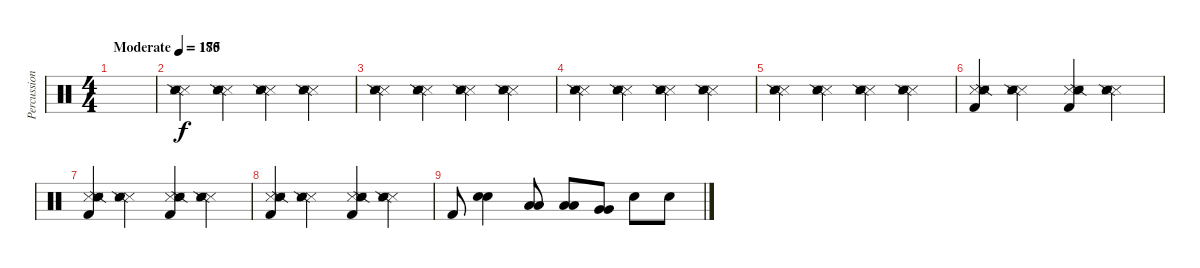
\track ("Percussion" "Percussion") {instrument percussion}
\staff {score}
\articulation defaults
\ts (4 4)
\tempo (175 "Moderate")
\clef neutral
\ks c
|
\tempo 180
("Snare (side stick) 3" "Snare (side stick) 3" "Snare (side stick) 2").4 ("Snare (side stick) 3" "Snare (side stick) 3" "Snare (side stick) 2").4 ("Snare (side stick) 3" "Snare (side stick) 3" "Snare (side stick) 2").4 ("Snare (side stick) 3" "Snare (side stick) 3" "Snare (side stick) 2").4 |
("Snare (side stick) 3" "Snare (side stick) 3" "Snare (side stick) 2").4 ("Snare (side stick) 3" "Snare (side stick) 3" "Snare (side stick) 2").4 ("Snare (side stick) 3" "Snare (side stick) 3" "Snare (side stick) 2").4 ("Snare (side stick) 3" "Snare (side stick) 3" "Snare (side stick) 2").4 |
("Snare (side stick) 3" "Snare (side stick) 3" "Snare (side stick) 2").4 ("Snare (side stick) 3" "Snare (side stick) 3" "Snare (side stick) 2").4 ("Snare (side stick) 3" "Snare (side stick) 3" "Snare (side stick) 2").4 ("Snare (side stick) 3" "Snare (side stick) 3" "Snare (side stick) 2").4 |
("Snare (side stick) 3" "Snare (side stick) 3" "Snare (side stick) 2").4 ("Snare (side stick) 3" "Snare (side stick) 3" "Snare (side stick) 2").4 ("Snare (side stick) 3" "Snare (side stick) 3" "Snare (side stick) 2").4 ("Snare (side stick) 3" "Snare (side stick) 3" "Snare (side stick) 2").4 |
("Kick (hit) 2" "Snare (side stick) 3" "Snare (side stick) 3" "Snare (side stick) 2").4 ("Snare (side stick) 3" "Snare (side stick) 3" "Snare (side stick) 2").4 ("Kick (hit) 2" "Snare (side stick) 3" "Snare (side stick) 3" "Snare (side stick) 2").4 ("Snare (side stick) 3" "Snare (side stick) 3" "Snare (side stick) 2").4 |
("Kick (hit) 2" "Snare (side stick) 3" "Snare (side stick) 3" "Snare (side stick) 2").4 ("Snare (side stick) 3" "Snare (side stick) 3" "Snare (side stick) 2").4 ("Kick (hit) 2" "Snare (side stick) 3" "Snare (side stick) 3" "Snare (side stick) 2").4 ("Snare (side stick) 3" "Snare (side stick) 3" "Snare (side stick) 2").4 |
("Kick (hit) 2" "Snare (side stick) 3" "Snare (side stick) 3" "Snare (side stick) 2").4 ("Snare (side stick) 3" "Snare (side stick) 3" "Snare (side stick) 2").4 ("Kick (hit) 2" "Snare (side stick) 3" "Snare (side stick) 3" "Snare (side stick) 2").4 ("Snare (side stick) 3" "Snare (side stick) 3" "Snare (side stick) 2").4 |
"Kick (hit) 2".8 ("Electric Snare (hit)" "Electric Snare (hit)").4 ("Low Tom (hit)" "Low Tom (hit)").8 ("Low Tom (hit)" "Low Tom (hit)").8 ("Very Low Tom (hit)" "Very Low Tom (hit)").8 "Electric Snare (hit)".8 "Electric Snare (hit)".8
